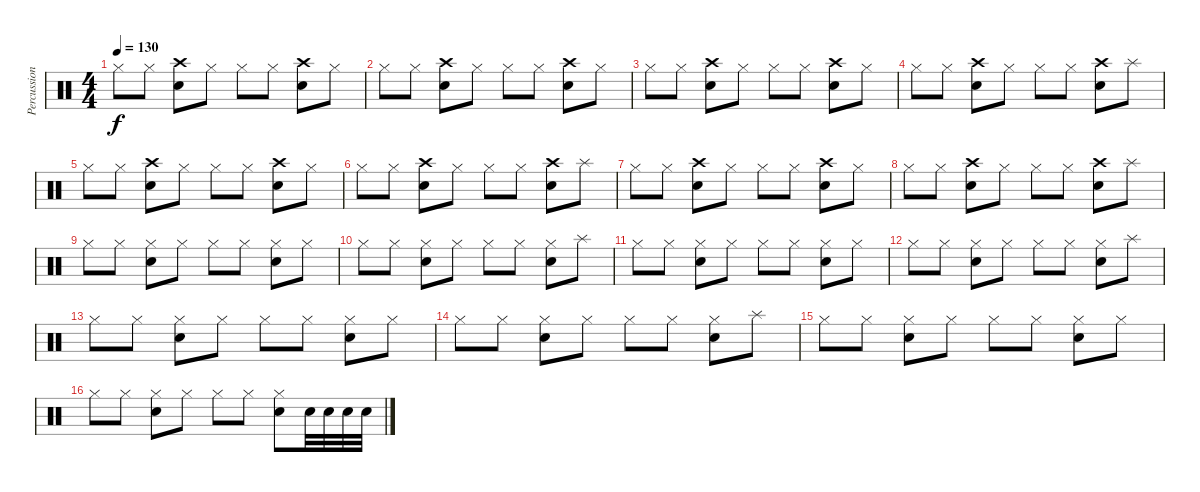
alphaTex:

\track ("Percussion" "Percussion") {instrument percussion}
\staff {score}
\articulation defaults
\ts (4 4)
\tempo 130
\clef neutral
\ks c "Hi-Hat (closed)".8{dy f volume 11} "Hi-Hat (closed)".8
("Crash high (hit)" "Electric Snare (hit)").8 "Hi-Hat (closed)".8 "Hi-Hat (closed)".8 "Hi-Hat (closed)".8 ("Crash high (hit)" "Electric Snare (hit)").8 "Hi-Hat (closed)".8 |
"Hi-Hat (closed)".8 "Hi-Hat (closed)".8 ("Crash high (hit)" "Electric Snare (hit)").8 "Hi-Hat (closed)".8 "Hi-Hat (closed)".8 "Hi-Hat (closed)".8 ("Crash high (hit)" "Electric Snare (hit)").8 "Hi-Hat (closed)".8 |
"Hi-Hat (closed)".8 "Hi-Hat (closed)".8 ("Crash high (hit)" "Electric Snare (hit)").8 "Hi-Hat (closed)".8 "Hi-Hat (closed)".8 "Hi-Hat (closed)".8 ("Crash high (hit)" "Electric Snare (hit)").8 "Hi-Hat (closed)".8 |
"Hi-Hat (closed)".8 "Hi-Hat (closed)".8 ("Crash high (hit)" "Electric Snare (hit)").8 "Hi-Hat (closed)".8 "Hi-Hat (closed)".8 "Hi-Hat (closed)".8 ("Crash high (hit)" "Electric Snare (hit)").8 "Splash (hit)".8 |
"Hi-Hat (closed)".8 "Hi-Hat (closed)".8 ("Crash high (hit)" "Electric Snare (hit)").8 "Hi-Hat (closed)".8 "Hi-Hat (closed)".8 "Hi-Hat (closed)".8 ("Crash high (hit)" "Electric Snare (hit)").8 "Hi-Hat (closed)".8 |
"Hi-Hat (closed)".8 "Hi-Hat (closed)".8 ("Crash high (hit)" "Electric Snare (hit)").8 "Hi-Hat (closed)".8 "Hi-Hat (closed)".8 "Hi-Hat (closed)".8 ("Crash high (hit)" "Electric Snare (hit)").8 "Splash (hit)".8 |
"Hi-Hat (closed)".8 "Hi-Hat (closed)".8 ("Crash high (hit)" "Electric Snare (hit)").8 "Hi-Hat (closed)".8 "Hi-Hat (closed)".8 "Hi-Hat (closed)".8 ("Crash high (hit)" "Electric Snare (hit)").8 "Hi-Hat (closed)".8 |
"Hi-Hat (closed)".8 "Hi-Hat (closed)".8 ("Crash high (hit)" "Electric Snare (hit)").8 "Hi-Hat (closed)".8 "Hi-Hat (closed)".8 "Hi-Hat (closed)".8 ("Crash high (hit)" "Electric Snare (hit)").8 "Splash (hit)".8 |
"Hi-Hat (closed)".8{volume 11} "Hi-Hat (closed)".8 ("Hi-Hat (closed)" "Electric Snare (hit)").8 "Hi-Hat (closed)".8 "Hi-Hat (closed)".8 "Hi-Hat (closed)".8 ("Hi-Hat (closed)" "Electric Snare (hit)").8 "Hi-Hat (closed)".8 |
"Hi-Hat (closed)".8 "Hi-Hat (closed)".8 ("Hi-Hat (closed)" "Electric Snare (hit)").8 "Hi-Hat (closed)".8 "Hi-Hat (closed)".8 "Hi-Hat (closed)".8 ("Hi-Hat (closed)" "Electric Snare (hit)").8 "Splash (hit)".8 |
"Hi-Hat (closed)".8 "Hi-Hat (closed)".8 ("Hi-Hat (closed)" "Electric Snare (hit)").8 "Hi-Hat (closed)".8 "Hi-Hat (closed)".8 "Hi-Hat (closed)".8 ("Hi-Hat (closed)" "Electric Snare (hit)").8 "Hi-Hat (closed)".8 |
"Hi-Hat (closed)".8 "Hi-Hat (closed)".8 ("Hi-Hat (closed)" "Electric Snare (hit)").8 "Hi-Hat (closed)".8 "Hi-Hat (closed)".8 "Hi-Hat (closed)".8 ("Hi-Hat (closed)" "Electric Snare (hit)").8 "Splash (hit)".8 |
"Hi-Hat (closed)".8 "Hi-Hat (closed)".8 ("Hi-Hat (closed)" "Electric Snare (hit)").8 "Hi-Hat (closed)".8 "Hi-Hat (closed)".8 "Hi-Hat (closed)".8 ("Hi-Hat (closed)" "Electric Snare (hit)").8 "Hi-Hat (closed)".8 |
"Hi-Hat (closed)".8 "Hi-Hat (closed)".8 ("Hi-Hat (closed)" "Electric Snare (hit)").8 "Hi-Hat (closed)".8 "Hi-Hat (closed)".8 "Hi-Hat (closed)".8 ("Hi-Hat (closed)" "Electric Snare (hit)").8 "Splash (hit)".8 |
"Hi-Hat (closed)".8 "Hi-Hat (closed)".8 ("Hi-Hat (closed)" "Electric Snare (hit)").8 "Hi-Hat (closed)".8 "Hi-Hat (closed)".8 "Hi-Hat (closed)".8 ("Hi-Hat (closed)" "Electric Snare (hit)").8 "Hi-Hat (closed)".8 |
"Hi-Hat (closed)".8 "Hi-Hat (closed)".8 ("Hi-Hat (closed)" "Electric Snare (hit)").8 "Hi-Hat (closed)".8 "Hi-Hat (closed)".8 "Hi-Hat (closed)".8 ("Hi-Hat (closed)" "Electric Snare (hit)").8 "Snare (hit) 2".32 "Snare (hit) 2".32 "Snare (hit) 2".32 "Snare (hit) 2".32
